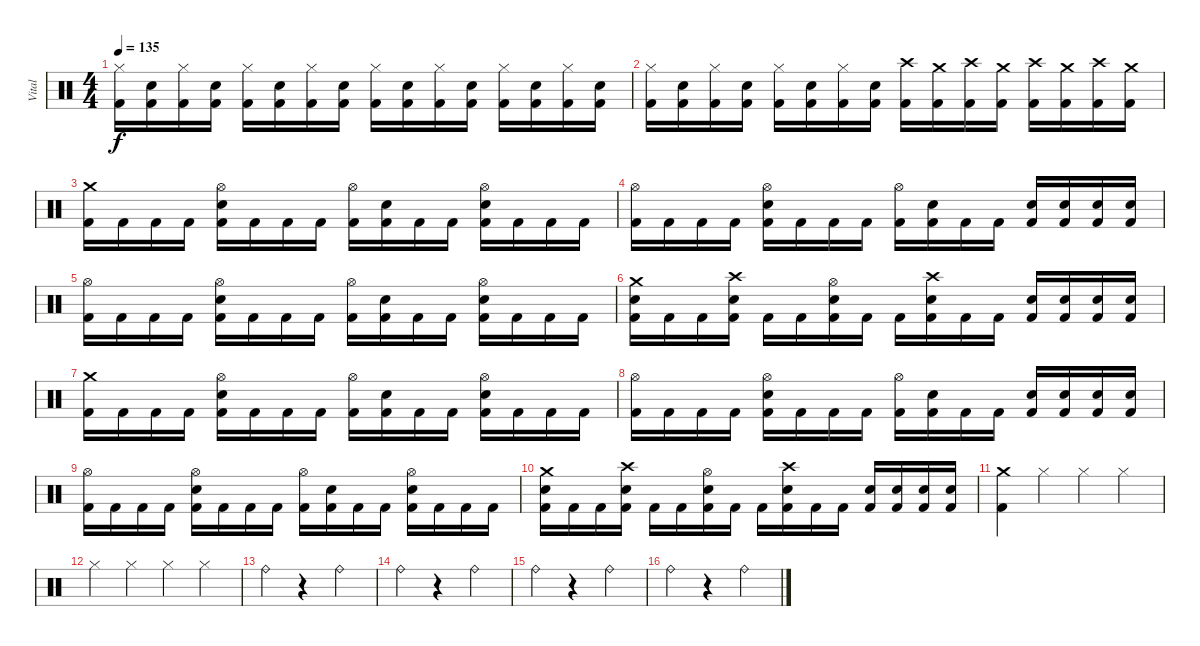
\track ("Vital" "Vital") {instrument percussion}
\staff {score}
\articulation defaults
\ts (4 4)
\tempo 135
\clef neutral
\ks c
("Hi-Hat (closed)" "Kick (hit) 2").16{dy f} ("Snare (hit) 2" "Kick (hit) 2").16 ("Hi-Hat (closed)" "Kick (hit) 2").16 ("Snare (hit) 2" "Kick (hit) 2").16 ("Hi-Hat (closed)" "Kick (hit) 2").16 ("Snare (hit) 2" "Kick (hit) 2").16 ("Hi-Hat (closed)" "Kick (hit) 2").16 ("Snare (hit) 2" "Kick (hit) 2").16 ("Hi-Hat (closed)" "Kick (hit) 2").16 ("Snare (hit) 2" "Kick (hit) 2").16 ("Hi-Hat (closed)" "Kick (hit) 2").16 ("Snare (hit) 2" "Kick (hit) 2").16 ("Hi-Hat (closed)" "Kick (hit) 2").16 ("Snare (hit) 2" "Kick (hit) 2").16 ("Hi-Hat (closed)" "Kick (hit) 2").16 ("Snare (hit) 2" "Kick (hit) 2").16 |
("Hi-Hat (closed)" "Kick (hit) 2").16 ("Snare (hit) 2" "Kick (hit) 2").16 ("Hi-Hat (closed)" "Kick (hit) 2").16 ("Snare (hit) 2" "Kick (hit) 2").16 ("Hi-Hat (closed)" "Kick (hit) 2").16 ("Snare (hit) 2" "Kick (hit) 2").16 ("Hi-Hat (closed)" "Kick (hit) 2").16 ("Snare (hit) 2" "Kick (hit) 2").16 ("Crash high (hit)" "Kick (hit) 2").16 ("Crash medium (hit)" "Kick (hit) 2").16 ("Crash high (hit)" "Kick (hit) 2").16 ("Crash medium (hit)" "Kick (hit) 2").16 ("Crash high (hit)" "Kick (hit) 2").16 ("Crash medium (hit)" "Kick (hit) 2").16 ("Crash high (hit)" "Kick (hit) 2").16 ("Crash medium (hit)" "Kick (hit) 2").16 |
("Crash medium (hit)" "Kick (hit) 2").16 "Kick (hit) 2".16 "Kick (hit) 2".16 "Kick (hit) 2".16 ("Hi-Hat (open)" "Snare (hit) 2" "Kick (hit) 2").16 "Kick (hit) 2".16 "Kick (hit) 2".16 "Kick (hit) 2".16 ("Hi-Hat (open)" "Kick (hit) 2").16 ("Snare (hit) 2" "Kick (hit) 2").16 "Kick (hit) 2".16 "Kick (hit) 2".16 ("Hi-Hat (open)" "Snare (hit) 2" "Kick (hit) 2").16 "Kick (hit) 2".16 "Kick (hit) 2".16 "Kick (hit) 2".16 |
("Hi-Hat (open)" "Kick (hit) 2").16 "Kick (hit) 2".16 "Kick (hit) 2".16 "Kick (hit) 2".16 ("Hi-Hat (open)" "Snare (hit) 2" "Kick (hit) 2").16 "Kick (hit) 2".16 "Kick (hit) 2".16 "Kick (hit) 2".16 ("Hi-Hat (open)" "Kick (hit) 2").16 ("Snare (hit) 2" "Kick (hit) 2").16 "Kick (hit) 2".16 "Kick (hit) 2".16 ("Snare (hit) 2" "Kick (hit) 2").16 ("Snare (hit) 2" "Kick (hit) 2").16 ("Snare (hit) 2" "Kick (hit) 2").16 ("Snare (hit) 2" "Kick (hit) 2").16 |
("Hi-Hat (open)" "Kick (hit) 2").16 "Kick (hit) 2".16 "Kick (hit) 2".16 "Kick (hit) 2".16 ("Hi-Hat (open)" "Snare (hit) 2" "Kick (hit) 2").16 "Kick (hit) 2".16 "Kick (hit) 2".16 "Kick (hit) 2".16 ("Hi-Hat (open)" "Kick (hit) 2").16 ("Snare (hit) 2" "Kick (hit) 2").16 "Kick (hit) 2".16 "Kick (hit) 2".16 ("Hi-Hat (open)" "Snare (hit) 2" "Kick (hit) 2").16 "Kick (hit) 2".16 "Kick (hit) 2".16 "Kick (hit) 2".16 |
("Crash medium (hit)" "Snare (hit) 2" "Kick (hit) 2").16 "Kick (hit) 2".16 "Kick (hit) 2".16 ("Crash high (hit)" "Snare (hit) 2" "Kick (hit) 2").16 "Kick (hit) 2".16 "Kick (hit) 2".16 ("Hi-Hat (open)" "Snare (hit) 2" "Kick (hit) 2").16 "Kick (hit) 2".16 "Kick (hit) 2".16 ("Crash high (hit)" "Snare (hit) 2" "Kick (hit) 2").16 "Kick (hit) 2".16 "Kick (hit) 2".16 ("Snare (hit) 2" "Kick (hit) 2").16 ("Snare (hit) 2" "Kick (hit) 2").16 ("Snare (hit) 2" "Kick (hit) 2").16 ("Snare (hit) 2" "Kick (hit) 2").16 |
("Crash medium (hit)" "Kick (hit) 2").16 "Kick (hit) 2".16 "Kick (hit) 2".16 "Kick (hit) 2".16 ("Hi-Hat (open)" "Snare (hit) 2" "Kick (hit) 2").16 "Kick (hit) 2".16 "Kick (hit) 2".16 "Kick (hit) 2".16 ("Hi-Hat (open)" "Kick (hit) 2").16 ("Snare (hit) 2" "Kick (hit) 2").16 "Kick (hit) 2".16 "Kick (hit) 2".16 ("Hi-Hat (open)" "Snare (hit) 2" "Kick (hit) 2").16 "Kick (hit) 2".16 "Kick (hit) 2".16 "Kick (hit) 2".16 |
("Hi-Hat (open)" "Kick (hit) 2").16 "Kick (hit) 2".16 "Kick (hit) 2".16 "Kick (hit) 2".16 ("Hi-Hat (open)" "Snare (hit) 2" "Kick (hit) 2").16 "Kick (hit) 2".16 "Kick (hit) 2".16 "Kick (hit) 2".16 ("Hi-Hat (open)" "Kick (hit) 2").16 ("Snare (hit) 2" "Kick (hit) 2").16 "Kick (hit) 2".16 "Kick (hit) 2".16 ("Snare (hit) 2" "Kick (hit) 2").16 ("Snare (hit) 2" "Kick (hit) 2").16 ("Snare (hit) 2" "Kick (hit) 2").16 ("Snare (hit) 2" "Kick (hit) 2").16 |
("Hi-Hat (open)" "Kick (hit) 2").16 "Kick (hit) 2".16 "Kick (hit) 2".16 "Kick (hit) 2".16 ("Hi-Hat (open)" "Snare (hit) 2" "Kick (hit) 2").16 "Kick (hit) 2".16 "Kick (hit) 2".16 "Kick (hit) 2".16 ("Hi-Hat (open)" "Kick (hit) 2").16 ("Snare (hit) 2" "Kick (hit) 2").16 "Kick (hit) 2".16 "Kick (hit) 2".16 ("Hi-Hat (open)" "Snare (hit) 2" "Kick (hit) 2").16 "Kick (hit) 2".16 "Kick (hit) 2".16 "Kick (hit) 2".16 |
("Crash medium (hit)" "Snare (hit) 2" "Kick (hit) 2").16 "Kick (hit) 2".16 "Kick (hit) 2".16 ("Crash high (hit)" "Snare (hit) 2" "Kick (hit) 2").16 "Kick (hit) 2".16 "Kick (hit) 2".16 ("Hi-Hat (open)" "Snare (hit) 2" "Kick (hit) 2").16 "Kick (hit) 2".16 "Kick (hit) 2".16 ("Crash high (hit)" "Snare (hit) 2" "Kick (hit) 2").16 "Kick (hit) 2".16 "Kick (hit) 2".16 ("Snare (hit) 2" "Kick (hit) 2").16 ("Snare (hit) 2" "Kick (hit) 2").16 ("Snare (hit) 2" "Kick (hit) 2").16 ("Snare (hit) 2" "Kick (hit) 2").16 |
("Crash medium (hit)" "Kick (hit) 2").4 "Hi-Hat (closed)".4 "Hi-Hat (closed)".4 "Hi-Hat (closed)".4 |
"Hi-Hat (closed)".4 "Hi-Hat (closed)".4 "Hi-Hat (closed)".4 "Hi-Hat (closed)".4 |
"Ride (bell)".4 r.4 "Ride (bell)".4 |
"Ride (bell)".4 r.4 "Ride (bell)".4 |
"Ride (bell)".4 r.4 "Ride (bell)".4 |
"Ride (bell)".4 r.4 "Ride (bell)".4
